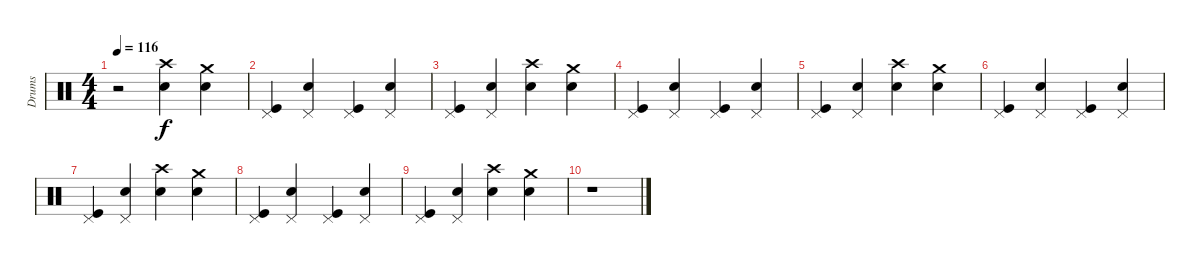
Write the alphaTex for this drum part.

\track ("Drums" "Drums") {instrument percussion}
\staff {score}
\articulation defaults
\ts (4 4)
\tempo 116
\clef neutral
\ks c
r.2{dy f} ("Electric Snare (hit)" "Crash high (hit)").4 ("Crash medium (hit)" "Electric Snare (hit)").4 |
("Pedal Hi-Hat (hit)" "Kick (hit)").4 ("Pedal Hi-Hat (hit)" "Electric Snare (hit)").4 ("Pedal Hi-Hat (hit)" "Kick (hit)").4 ("Pedal Hi-Hat (hit)" "Electric Snare (hit)").4 |
("Pedal Hi-Hat (hit)" "Kick (hit)").4 ("Pedal Hi-Hat (hit)" "Electric Snare (hit)").4 ("Electric Snare (hit)" "Crash high (hit)").4 ("Crash medium (hit)" "Electric Snare (hit)").4 |
("Pedal Hi-Hat (hit)" "Kick (hit)").4 ("Pedal Hi-Hat (hit)" "Electric Snare (hit)").4 ("Pedal Hi-Hat (hit)" "Kick (hit)").4 ("Pedal Hi-Hat (hit)" "Electric Snare (hit)").4 |
("Pedal Hi-Hat (hit)" "Kick (hit)").4 ("Pedal Hi-Hat (hit)" "Electric Snare (hit)").4 ("Electric Snare (hit)" "Crash high (hit)").4 ("Crash medium (hit)" "Electric Snare (hit)").4 |
("Pedal Hi-Hat (hit)" "Kick (hit)").4 ("Pedal Hi-Hat (hit)" "Electric Snare (hit)").4 ("Pedal Hi-Hat (hit)" "Kick (hit)").4 ("Pedal Hi-Hat (hit)" "Electric Snare (hit)").4 |
("Pedal Hi-Hat (hit)" "Kick (hit)").4 ("Pedal Hi-Hat (hit)" "Electric Snare (hit)").4 ("Electric Snare (hit)" "Crash high (hit)").4 ("Crash medium (hit)" "Electric Snare (hit)").4 |
("Pedal Hi-Hat (hit)" "Kick (hit)").4 ("Pedal Hi-Hat (hit)" "Electric Snare (hit)").4 ("Pedal Hi-Hat (hit)" "Kick (hit)").4 ("Pedal Hi-Hat (hit)" "Electric Snare (hit)").4 |
("Pedal Hi-Hat (hit)" "Kick (hit)").4 ("Pedal Hi-Hat (hit)" "Electric Snare (hit)").4 ("Electric Snare (hit)" "Crash high (hit)").4 ("Crash medium (hit)" "Electric Snare (hit)").4 |
r.1
